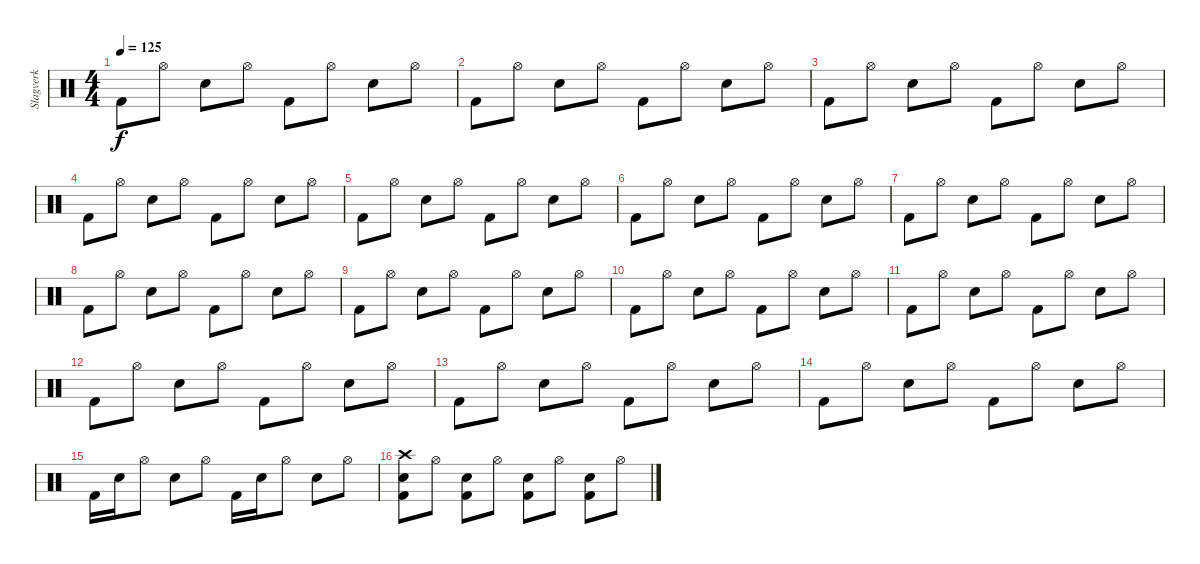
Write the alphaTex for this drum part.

\track ("Slagverk" "Slagverk") {instrument percussion}
\staff {score}
\articulation defaults
\ts (4 4)
\tempo 125
\clef neutral
\ks c "Kick (hit) 2".8{dy f} "Hi-Hat (open)".8 "Electric Snare (hit)".8 "Hi-Hat (open)".8 "Kick (hit) 2".8 "Hi-Hat (open)".8 "Electric Snare (hit)".8 "Hi-Hat (open)".8
|
"Kick (hit) 2".8 "Hi-Hat (open)".8 "Electric Snare (hit)".8 "Hi-Hat (open)".8 "Kick (hit) 2".8 "Hi-Hat (open)".8 "Electric Snare (hit)".8 "Hi-Hat (open)".8 |
"Kick (hit) 2".8 "Hi-Hat (open)".8 "Electric Snare (hit)".8 "Hi-Hat (open)".8 "Kick (hit) 2".8 "Hi-Hat (open)".8 "Electric Snare (hit)".8 "Hi-Hat (open)".8 |
"Kick (hit) 2".8 "Hi-Hat (open)".8 "Electric Snare (hit)".8 "Hi-Hat (open)".8 "Kick (hit) 2".8 "Hi-Hat (open)".8 "Electric Snare (hit)".8 "Hi-Hat (open)".8 |
"Kick (hit) 2".8 "Hi-Hat (open)".8 "Electric Snare (hit)".8 "Hi-Hat (open)".8 "Kick (hit) 2".8 "Hi-Hat (open)".8 "Electric Snare (hit)".8 "Hi-Hat (open)".8 |
"Kick (hit) 2".8 "Hi-Hat (open)".8 "Electric Snare (hit)".8 "Hi-Hat (open)".8 "Kick (hit) 2".8 "Hi-Hat (open)".8 "Electric Snare (hit)".8 "Hi-Hat (open)".8 |
"Kick (hit) 2".8 "Hi-Hat (open)".8 "Electric Snare (hit)".8 "Hi-Hat (open)".8 "Kick (hit) 2".8 "Hi-Hat (open)".8 "Electric Snare (hit)".8 "Hi-Hat (open)".8 |
"Kick (hit) 2".8 "Hi-Hat (open)".8 "Electric Snare (hit)".8 "Hi-Hat (open)".8 "Kick (hit) 2".8 "Hi-Hat (open)".8 "Electric Snare (hit)".8 "Hi-Hat (open)".8 |
"Kick (hit) 2".8 "Hi-Hat (open)".8 "Electric Snare (hit)".8 "Hi-Hat (open)".8 "Kick (hit) 2".8 "Hi-Hat (open)".8 "Electric Snare (hit)".8 "Hi-Hat (open)".8 |
"Kick (hit) 2".8 "Hi-Hat (open)".8 "Electric Snare (hit)".8 "Hi-Hat (open)".8 "Kick (hit) 2".8 "Hi-Hat (open)".8 "Electric Snare (hit)".8 "Hi-Hat (open)".8 |
"Kick (hit) 2".8 "Hi-Hat (open)".8 "Electric Snare (hit)".8 "Hi-Hat (open)".8 "Kick (hit) 2".8 "Hi-Hat (open)".8 "Electric Snare (hit)".8 "Hi-Hat (open)".8 |
"Kick (hit) 2".8 "Hi-Hat (open)".8 "Electric Snare (hit)".8 "Hi-Hat (open)".8 "Kick (hit) 2".8 "Hi-Hat (open)".8 "Electric Snare (hit)".8 "Hi-Hat (open)".8 |
"Kick (hit) 2".8 "Hi-Hat (open)".8 "Electric Snare (hit)".8 "Hi-Hat (open)".8 "Kick (hit) 2".8 "Hi-Hat (open)".8 "Electric Snare (hit)".8 "Hi-Hat (open)".8 |
"Kick (hit) 2".8 "Hi-Hat (open)".8 "Electric Snare (hit)".8 "Hi-Hat (open)".8 "Kick (hit) 2".8 "Hi-Hat (open)".8 "Electric Snare (hit)".8 "Hi-Hat (open)".8 |
"Kick (hit) 2".16 "Electric Snare (hit)".16 "Hi-Hat (open)".8 "Electric Snare (hit)".8 "Hi-Hat (open)".8 "Kick (hit) 2".16 "Electric Snare (hit)".16 "Hi-Hat (open)".8 "Electric Snare (hit)".8 "Hi-Hat (open)".8 |
("Crash high (hit)" "Kick (hit) 2" "Electric Snare (hit)").8 "Hi-Hat (open)".8 ("Kick (hit) 2" "Electric Snare (hit)").8 "Hi-Hat (open)".8 ("Kick (hit) 2" "Electric Snare (hit)").8 "Hi-Hat (open)".8 ("Kick (hit) 2" "Electric Snare (hit)").8 "Hi-Hat (open)".8
